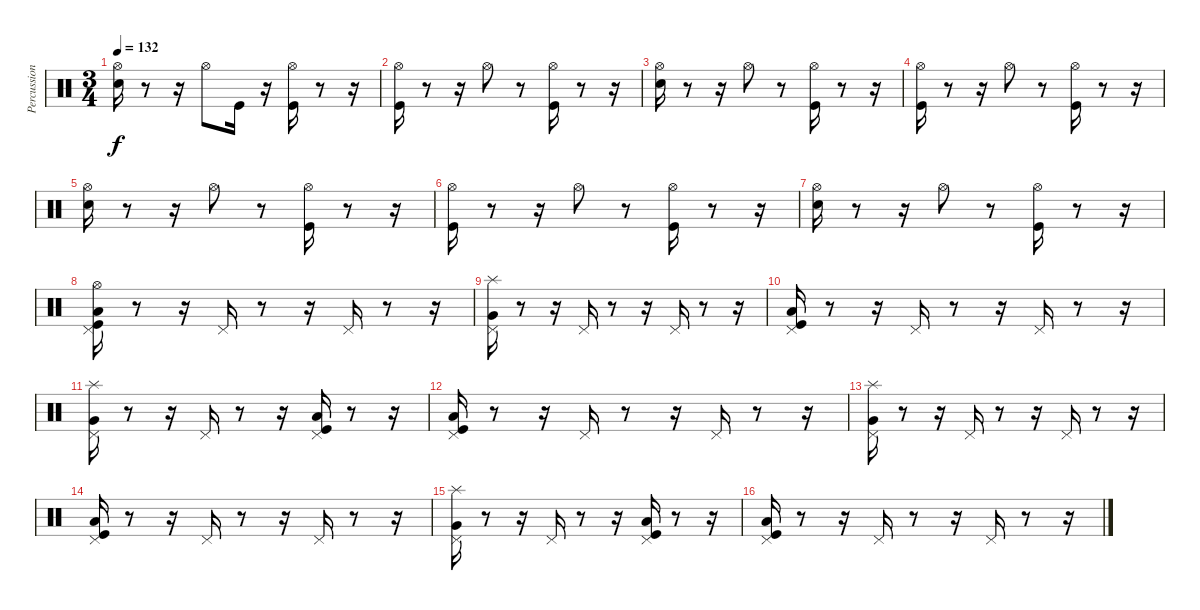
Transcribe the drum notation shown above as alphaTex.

\track ("Percussion" "Percussion") {instrument percussion}
\staff {score}
\articulation defaults
\ts (3 4)
\tempo 132
\clef neutral
\ks c
("Snare (hit) 2" "Hi-Hat (open)").16{dy f} r.8 r.16 "Hi-Hat (open)".8 "Kick (hit)".16 r.16 ("Hi-Hat (open)" "Kick (hit)").16 r.8 r.16 |
("Kick (hit)" "Hi-Hat (open)").16 r.8 r.16 "Hi-Hat (open)".8 r.8 ("Hi-Hat (open)" "Kick (hit)").16 r.8 r.16 |
("Hi-Hat (open)" "Snare (hit) 2").16 r.8 r.16 "Hi-Hat (open)".8 r.8 ("Hi-Hat (open)" "Kick (hit)").16 r.8 r.16 |
("Hi-Hat (open)" "Kick (hit)").16 r.8 r.16 "Hi-Hat (open)".8 r.8 ("Kick (hit)" "Hi-Hat (open)").16 r.8 r.16 |
("Hi-Hat (open)" "Snare (hit) 2").16 r.8 r.16 "Hi-Hat (open)".8 r.8 ("Hi-Hat (open)" "Kick (hit)").16 r.8 r.16 |
("Hi-Hat (open)" "Kick (hit)").16 r.8 r.16 "Hi-Hat (open)".8 r.8 ("Kick (hit)" "Hi-Hat (open)").16 r.8 r.16 |
("Hi-Hat (open)" "Snare (hit) 2").16 r.8 r.16 "Hi-Hat (open)".8 r.8 ("Hi-Hat (open)" "Kick (hit)").16 r.8 r.16 |
("Hi-Hat (open)" "Kick (hit)" "Pedal Hi-Hat (hit)" "Low Floor Tom (hit)").16 r.8 r.16 "Pedal Hi-Hat (hit)".16 r.8 r.16 "Pedal Hi-Hat (hit)".16 r.8 r.16 |
("Pedal Hi-Hat (hit)" "Very Low Tom (hit)" "Splash (hit)").16 r.8 r.16 "Pedal Hi-Hat (hit)".16 r.8 r.16 "Pedal Hi-Hat (hit)".16 r.8 r.16 |
("Low Floor Tom (hit)" "Pedal Hi-Hat (hit)" "Kick (hit)").16 r.8 r.16 "Pedal Hi-Hat (hit)".16 r.8 r.16 "Pedal Hi-Hat (hit)".16 r.8 r.16 |
("Pedal Hi-Hat (hit)" "Very Low Tom (hit)" "Splash (hit)").16 r.8 r.16 "Pedal Hi-Hat (hit)".16 r.8 r.16 ("Pedal Hi-Hat (hit)" "Low Floor Tom (hit)" "Kick (hit)").16 r.8 r.16 |
("Low Floor Tom (hit)" "Pedal Hi-Hat (hit)" "Kick (hit)").16 r.8 r.16 "Pedal Hi-Hat (hit)".16 r.8 r.16 "Pedal Hi-Hat (hit)".16 r.8 r.16 |
("Pedal Hi-Hat (hit)" "Very Low Tom (hit)" "Splash (hit)").16 r.8 r.16 "Pedal Hi-Hat (hit)".16 r.8 r.16 "Pedal Hi-Hat (hit)".16 r.8 r.16 |
("Low Floor Tom (hit)" "Pedal Hi-Hat (hit)" "Kick (hit)").16 r.8 r.16 "Pedal Hi-Hat (hit)".16 r.8 r.16 "Pedal Hi-Hat (hit)".16 r.8 r.16 |
("Pedal Hi-Hat (hit)" "Very Low Tom (hit)" "Splash (hit)").16 r.8 r.16 "Pedal Hi-Hat (hit)".16 r.8 r.16 ("Pedal Hi-Hat (hit)" "Low Floor Tom (hit)" "Kick (hit)").16 r.8 r.16 |
("Low Floor Tom (hit)" "Pedal Hi-Hat (hit)" "Kick (hit)").16 r.8 r.16 "Pedal Hi-Hat (hit)".16 r.8 r.16 "Pedal Hi-Hat (hit)".16 r.8 r.16
